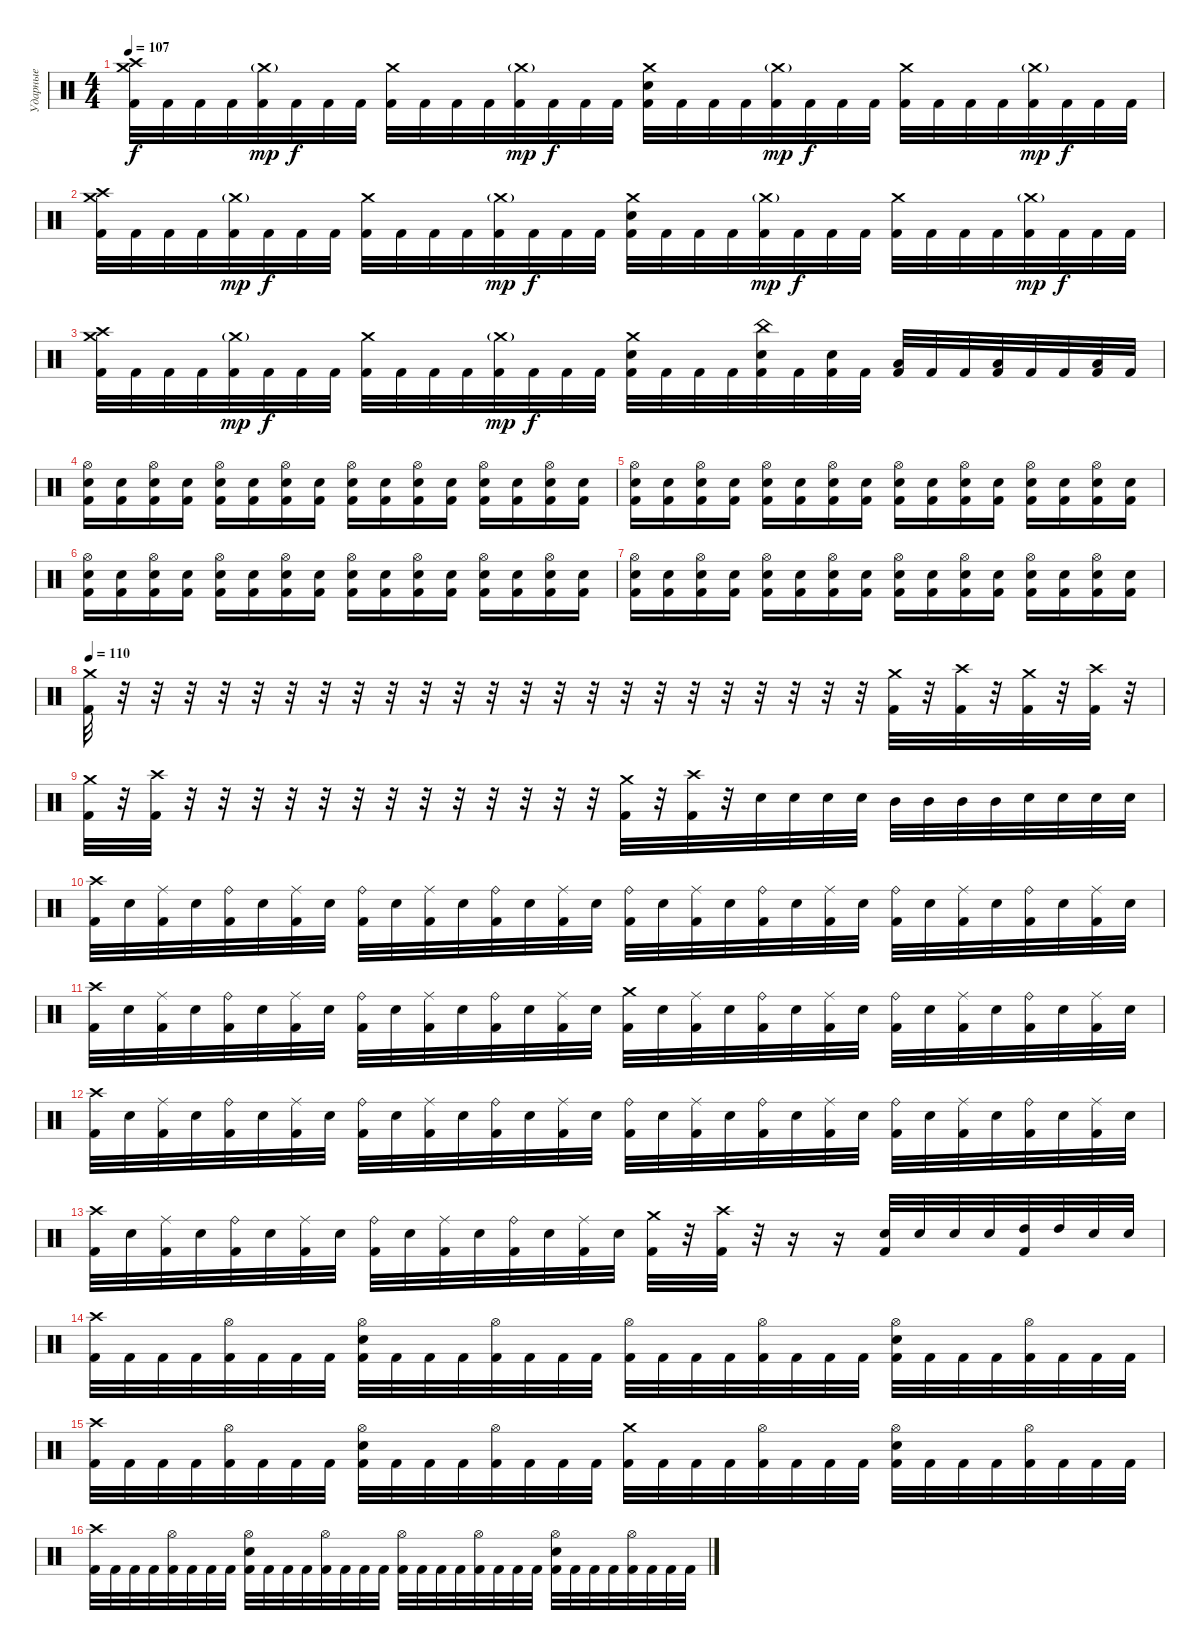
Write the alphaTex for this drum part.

\track ("Ударные" "Ударные") {instrument percussion}
\staff {score}
\articulation defaults
\ts (4 4)
\tempo 107
\clef neutral
\ks c
("Crash medium (hit)" "Crash high (hit)" "Kick (hit) 2").32{dy f} "Kick (hit) 2".32 "Kick (hit) 2".32 "Kick (hit) 2".32 ("Crash medium (hit)"{g} "Kick (hit) 2").32{dy mp} "Kick (hit) 2".32{dy f} "Kick (hit) 2".32 "Kick (hit) 2".32 ("Crash medium (hit)" "Kick (hit) 2").32 "Kick (hit) 2".32 "Kick (hit) 2".32 "Kick (hit) 2".32 ("Crash medium (hit)"{g} "Kick (hit) 2").32{dy mp} "Kick (hit) 2".32{dy f} "Kick (hit) 2".32 "Kick (hit) 2".32 ("Crash medium (hit)" "Electric Snare (hit)" "Kick (hit) 2").32 "Kick (hit) 2".32 "Kick (hit) 2".32 "Kick (hit) 2".32 ("Crash medium (hit)"{g} "Kick (hit) 2").32{dy mp} "Kick (hit) 2".32{dy f} "Kick (hit) 2".32 "Kick (hit) 2".32 ("Crash medium (hit)" "Kick (hit) 2").32 "Kick (hit) 2".32 "Kick (hit) 2".32 "Kick (hit) 2".32 ("Crash medium (hit)"{g} "Kick (hit) 2").32{dy mp} "Kick (hit) 2".32{dy f} "Kick (hit) 2".32 "Kick (hit) 2".32 |
("Crash medium (hit)" "Crash high (hit)" "Kick (hit) 2").32 "Kick (hit) 2".32 "Kick (hit) 2".32 "Kick (hit) 2".32 ("Crash medium (hit)"{g} "Kick (hit) 2").32{dy mp} "Kick (hit) 2".32{dy f} "Kick (hit) 2".32 "Kick (hit) 2".32 ("Crash medium (hit)" "Kick (hit) 2").32 "Kick (hit) 2".32 "Kick (hit) 2".32 "Kick (hit) 2".32 ("Crash medium (hit)"{g} "Kick (hit) 2").32{dy mp} "Kick (hit) 2".32{dy f} "Kick (hit) 2".32 "Kick (hit) 2".32 ("Crash medium (hit)" "Electric Snare (hit)" "Kick (hit) 2").32 "Kick (hit) 2".32 "Kick (hit) 2".32 "Kick (hit) 2".32 ("Crash medium (hit)"{g} "Kick (hit) 2").32{dy mp} "Kick (hit) 2".32{dy f} "Kick (hit) 2".32 "Kick (hit) 2".32 ("Crash medium (hit)" "Kick (hit) 2").32 "Kick (hit) 2".32 "Kick (hit) 2".32 "Kick (hit) 2".32 ("Crash medium (hit)"{g} "Kick (hit) 2").32{dy mp} "Kick (hit) 2".32{dy f} "Kick (hit) 2".32 "Kick (hit) 2".32 |
("Crash medium (hit)" "Crash high (hit)" "Kick (hit) 2").32 "Kick (hit) 2".32 "Kick (hit) 2".32 "Kick (hit) 2".32 ("Crash medium (hit)"{g} "Kick (hit) 2").32{dy mp} "Kick (hit) 2".32{dy f} "Kick (hit) 2".32 "Kick (hit) 2".32 ("Crash medium (hit)" "Kick (hit) 2").32 "Kick (hit) 2".32 "Kick (hit) 2".32 "Kick (hit) 2".32 ("Crash medium (hit)"{g} "Kick (hit) 2").32{dy mp} "Kick (hit) 2".32{dy f} "Kick (hit) 2".32 "Kick (hit) 2".32 ("Crash medium (hit)" "Electric Snare (hit)" "Kick (hit) 2").32 "Kick (hit) 2".32 "Kick (hit) 2".32 "Kick (hit) 2".32 ("China (hit)" "Electric Snare (hit)" "Kick (hit) 2").32 "Kick (hit) 2".32 ("Electric Snare (hit)" "Kick (hit) 2").32 "Kick (hit) 2".32 ("Low Tom (hit)" "Kick (hit) 2").32 "Kick (hit) 2".32 "Kick (hit) 2".32 ("Low Tom (hit)" "Kick (hit) 2").32 "Kick (hit) 2".32 "Kick (hit) 2".32 ("Low Tom (hit)" "Kick (hit) 2").32 "Kick (hit) 2".32 |
("Hi-Hat (open)" "Electric Snare (hit)" "Kick (hit) 2").16 ("Electric Snare (hit)" "Kick (hit) 2").16 ("Hi-Hat (open)" "Electric Snare (hit)" "Kick (hit) 2").16 ("Electric Snare (hit)" "Kick (hit) 2").16 ("Hi-Hat (open)" "Electric Snare (hit)" "Kick (hit) 2").16 ("Electric Snare (hit)" "Kick (hit) 2").16 ("Hi-Hat (open)" "Electric Snare (hit)" "Kick (hit) 2").16 ("Electric Snare (hit)" "Kick (hit) 2").16 ("Hi-Hat (open)" "Electric Snare (hit)" "Kick (hit) 2").16 ("Electric Snare (hit)" "Kick (hit) 2").16 ("Hi-Hat (open)" "Electric Snare (hit)" "Kick (hit) 2").16 ("Electric Snare (hit)" "Kick (hit) 2").16 ("Hi-Hat (open)" "Electric Snare (hit)" "Kick (hit) 2").16 ("Electric Snare (hit)" "Kick (hit) 2").16 ("Hi-Hat (open)" "Electric Snare (hit)" "Kick (hit) 2").16 ("Electric Snare (hit)" "Kick (hit) 2").16 |
("Hi-Hat (open)" "Electric Snare (hit)" "Kick (hit) 2").16 ("Electric Snare (hit)" "Kick (hit) 2").16 ("Hi-Hat (open)" "Electric Snare (hit)" "Kick (hit) 2").16 ("Electric Snare (hit)" "Kick (hit) 2").16 ("Hi-Hat (open)" "Electric Snare (hit)" "Kick (hit) 2").16 ("Electric Snare (hit)" "Kick (hit) 2").16 ("Hi-Hat (open)" "Electric Snare (hit)" "Kick (hit) 2").16 ("Electric Snare (hit)" "Kick (hit) 2").16 ("Hi-Hat (open)" "Electric Snare (hit)" "Kick (hit) 2").16 ("Electric Snare (hit)" "Kick (hit) 2").16 ("Hi-Hat (open)" "Electric Snare (hit)" "Kick (hit) 2").16 ("Electric Snare (hit)" "Kick (hit) 2").16 ("Hi-Hat (open)" "Electric Snare (hit)" "Kick (hit) 2").16 ("Electric Snare (hit)" "Kick (hit) 2").16 ("Hi-Hat (open)" "Electric Snare (hit)" "Kick (hit) 2").16 ("Electric Snare (hit)" "Kick (hit) 2").16 |
("Hi-Hat (open)" "Electric Snare (hit)" "Kick (hit) 2").16 ("Electric Snare (hit)" "Kick (hit) 2").16 ("Hi-Hat (open)" "Electric Snare (hit)" "Kick (hit) 2").16 ("Electric Snare (hit)" "Kick (hit) 2").16 ("Hi-Hat (open)" "Electric Snare (hit)" "Kick (hit) 2").16 ("Electric Snare (hit)" "Kick (hit) 2").16 ("Hi-Hat (open)" "Electric Snare (hit)" "Kick (hit) 2").16 ("Electric Snare (hit)" "Kick (hit) 2").16 ("Hi-Hat (open)" "Electric Snare (hit)" "Kick (hit) 2").16 ("Electric Snare (hit)" "Kick (hit) 2").16 ("Hi-Hat (open)" "Electric Snare (hit)" "Kick (hit) 2").16 ("Electric Snare (hit)" "Kick (hit) 2").16 ("Hi-Hat (open)" "Electric Snare (hit)" "Kick (hit) 2").16 ("Electric Snare (hit)" "Kick (hit) 2").16 ("Hi-Hat (open)" "Electric Snare (hit)" "Kick (hit) 2").16 ("Electric Snare (hit)" "Kick (hit) 2").16 |
("Hi-Hat (open)" "Electric Snare (hit)" "Kick (hit) 2").16 ("Electric Snare (hit)" "Kick (hit) 2").16 ("Hi-Hat (open)" "Electric Snare (hit)" "Kick (hit) 2").16 ("Electric Snare (hit)" "Kick (hit) 2").16 ("Hi-Hat (open)" "Electric Snare (hit)" "Kick (hit) 2").16 ("Electric Snare (hit)" "Kick (hit) 2").16 ("Hi-Hat (open)" "Electric Snare (hit)" "Kick (hit) 2").16 ("Electric Snare (hit)" "Kick (hit) 2").16 ("Hi-Hat (open)" "Electric Snare (hit)" "Kick (hit) 2").16 ("Electric Snare (hit)" "Kick (hit) 2").16 ("Hi-Hat (open)" "Electric Snare (hit)" "Kick (hit) 2").16 ("Electric Snare (hit)" "Kick (hit) 2").16 ("Hi-Hat (open)" "Electric Snare (hit)" "Kick (hit) 2").16 ("Electric Snare (hit)" "Kick (hit) 2").16 ("Hi-Hat (open)" "Electric Snare (hit)" "Kick (hit) 2").16 ("Electric Snare (hit)" "Kick (hit) 2").16 |
\tempo 110
("Crash medium (hit)" "Kick (hit) 2").32 r.32 r.32 r.32 r.32 r.32 r.32 r.32 r.32 r.32 r.32 r.32 r.32 r.32 r.32 r.32 r.32 r.32 r.32 r.32 r.32 r.32 r.32 r.32 ("Crash medium (hit)" "Kick (hit) 2").32 r.32 ("Crash high (hit)" "Kick (hit) 2").32 r.32 ("Crash medium (hit)" "Kick (hit) 2").32 r.32 ("Crash high (hit)" "Kick (hit) 2").32 r.32 |
("Crash medium (hit)" "Kick (hit) 2").32 r.32 ("Crash high (hit)" "Kick (hit) 2").32 r.32 r.32 r.32 r.32 r.32 r.32 r.32 r.32 r.32 r.32 r.32 r.32 r.32 ("Crash medium (hit)" "Kick (hit) 2").32 r.32 ("Crash high (hit)" "Kick (hit) 2").32 r.32 "Electric Snare (hit)".32 "Electric Snare (hit)".32 "Electric Snare (hit)".32 "Electric Snare (hit)".32 "Mid Tom (hit)".32 "Mid Tom (hit)".32 "Mid Tom (hit)".32 "Mid Tom (hit)".32 "Electric Snare (hit)".32 "Electric Snare (hit)".32 "Electric Snare (hit)".32 "Electric Snare (hit)".32 |
("Crash high (hit)" "Kick (hit) 2").32 "Electric Snare (hit)".32 ("Ride (middle)" "Kick (hit) 2").32 "Electric Snare (hit)".32 ("Ride (bell)" "Kick (hit) 2").32 "Electric Snare (hit)".32 ("Ride (middle)" "Kick (hit) 2").32 "Electric Snare (hit)".32 ("Ride (bell)" "Kick (hit) 2").32 "Electric Snare (hit)".32 ("Ride (middle)" "Kick (hit) 2").32 "Electric Snare (hit)".32 ("Ride (bell)" "Kick (hit) 2").32 "Electric Snare (hit)".32 ("Ride (middle)" "Kick (hit) 2").32 "Electric Snare (hit)".32 ("Ride (bell)" "Kick (hit) 2").32 "Electric Snare (hit)".32 ("Ride (middle)" "Kick (hit) 2").32 "Electric Snare (hit)".32 ("Ride (bell)" "Kick (hit) 2").32 "Electric Snare (hit)".32 ("Ride (middle)" "Kick (hit) 2").32 "Electric Snare (hit)".32 ("Ride (bell)" "Kick (hit) 2").32 "Electric Snare (hit)".32 ("Ride (middle)" "Kick (hit) 2").32 "Electric Snare (hit)".32 ("Ride (bell)" "Kick (hit) 2").32 "Electric Snare (hit)".32 ("Ride (middle)" "Kick (hit) 2").32 "Electric Snare (hit)".32 |
("Crash high (hit)" "Kick (hit) 2").32 "Electric Snare (hit)".32 ("Ride (middle)" "Kick (hit) 2").32 "Electric Snare (hit)".32 ("Ride (bell)" "Kick (hit) 2").32 "Electric Snare (hit)".32 ("Ride (middle)" "Kick (hit) 2").32 "Electric Snare (hit)".32 ("Ride (bell)" "Kick (hit) 2").32 "Electric Snare (hit)".32 ("Ride (middle)" "Kick (hit) 2").32 "Electric Snare (hit)".32 ("Ride (bell)" "Kick (hit) 2").32 "Electric Snare (hit)".32 ("Ride (middle)" "Kick (hit) 2").32 "Electric Snare (hit)".32 ("Crash medium (hit)" "Kick (hit) 2").32 "Electric Snare (hit)".32 ("Ride (middle)" "Kick (hit) 2").32 "Electric Snare (hit)".32 ("Ride (bell)" "Kick (hit) 2").32 "Electric Snare (hit)".32 ("Ride (middle)" "Kick (hit) 2").32 "Electric Snare (hit)".32 ("Ride (bell)" "Kick (hit) 2").32 "Electric Snare (hit)".32 ("Ride (middle)" "Kick (hit) 2").32 "Electric Snare (hit)".32 ("Ride (bell)" "Kick (hit) 2").32 "Electric Snare (hit)".32 ("Ride (middle)" "Kick (hit) 2").32 "Electric Snare (hit)".32 |
("Crash high (hit)" "Kick (hit) 2").32 "Electric Snare (hit)".32 ("Ride (middle)" "Kick (hit) 2").32 "Electric Snare (hit)".32 ("Ride (bell)" "Kick (hit) 2").32 "Electric Snare (hit)".32 ("Ride (middle)" "Kick (hit) 2").32 "Electric Snare (hit)".32 ("Ride (bell)" "Kick (hit) 2").32 "Electric Snare (hit)".32 ("Ride (middle)" "Kick (hit) 2").32 "Electric Snare (hit)".32 ("Ride (bell)" "Kick (hit) 2").32 "Electric Snare (hit)".32 ("Ride (middle)" "Kick (hit) 2").32 "Electric Snare (hit)".32 ("Ride (bell)" "Kick (hit) 2").32 "Electric Snare (hit)".32 ("Ride (middle)" "Kick (hit) 2").32 "Electric Snare (hit)".32 ("Ride (bell)" "Kick (hit) 2").32 "Electric Snare (hit)".32 ("Ride (middle)" "Kick (hit) 2").32 "Electric Snare (hit)".32 ("Ride (bell)" "Kick (hit) 2").32 "Electric Snare (hit)".32 ("Ride (middle)" "Kick (hit) 2").32 "Electric Snare (hit)".32 ("Ride (bell)" "Kick (hit) 2").32 "Electric Snare (hit)".32 ("Ride (middle)" "Kick (hit) 2").32 "Electric Snare (hit)".32 |
("Crash high (hit)" "Kick (hit) 2").32 "Electric Snare (hit)".32 ("Ride (middle)" "Kick (hit) 2").32 "Electric Snare (hit)".32 ("Ride (bell)" "Kick (hit) 2").32 "Electric Snare (hit)".32 ("Ride (middle)" "Kick (hit) 2").32 "Electric Snare (hit)".32 ("Ride (bell)" "Kick (hit) 2").32 "Electric Snare (hit)".32 ("Ride (middle)" "Kick (hit) 2").32 "Electric Snare (hit)".32 ("Ride (bell)" "Kick (hit) 2").32 "Electric Snare (hit)".32 ("Ride (middle)" "Kick (hit) 2").32 "Electric Snare (hit)".32 ("Crash medium (hit)" "Kick (hit) 2").32 r.32 ("Crash high (hit)" "Kick (hit) 2").32 r.32 r.16 r.16 ("Electric Snare (hit)" "Kick (hit) 2").32 "Electric Snare (hit)".32 "Electric Snare (hit)".32 "Electric Snare (hit)".32 ("High Tom (hit)" "Kick (hit) 2").32 "High Tom (hit)".32 "Electric Snare (hit)".32 "Electric Snare (hit)".32 |
("Crash high (hit)" "Kick (hit) 2").32 "Kick (hit) 2".32 "Kick (hit) 2".32 "Kick (hit) 2".32 ("Hi-Hat (open)" "Kick (hit) 2").32 "Kick (hit) 2".32 "Kick (hit) 2".32 "Kick (hit) 2".32 ("Hi-Hat (open)" "Electric Snare (hit)" "Kick (hit) 2").32 "Kick (hit) 2".32 "Kick (hit) 2".32 "Kick (hit) 2".32 ("Hi-Hat (open)" "Kick (hit) 2").32 "Kick (hit) 2".32 "Kick (hit) 2".32 "Kick (hit) 2".32 ("Hi-Hat (open)" "Kick (hit) 2").32 "Kick (hit) 2".32 "Kick (hit) 2".32 "Kick (hit) 2".32 ("Hi-Hat (open)" "Kick (hit) 2").32 "Kick (hit) 2".32 "Kick (hit) 2".32 "Kick (hit) 2".32 ("Hi-Hat (open)" "Electric Snare (hit)" "Kick (hit) 2").32 "Kick (hit) 2".32 "Kick (hit) 2".32 "Kick (hit) 2".32 ("Hi-Hat (open)" "Kick (hit) 2").32 "Kick (hit) 2".32 "Kick (hit) 2".32 "Kick (hit) 2".32 |
("Crash high (hit)" "Kick (hit) 2").32 "Kick (hit) 2".32 "Kick (hit) 2".32 "Kick (hit) 2".32 ("Hi-Hat (open)" "Kick (hit) 2").32 "Kick (hit) 2".32 "Kick (hit) 2".32 "Kick (hit) 2".32 ("Hi-Hat (open)" "Electric Snare (hit)" "Kick (hit) 2").32 "Kick (hit) 2".32 "Kick (hit) 2".32 "Kick (hit) 2".32 ("Hi-Hat (open)" "Kick (hit) 2").32 "Kick (hit) 2".32 "Kick (hit) 2".32 "Kick (hit) 2".32 ("Crash medium (hit)" "Kick (hit) 2").32 "Kick (hit) 2".32 "Kick (hit) 2".32 "Kick (hit) 2".32 ("Hi-Hat (open)" "Kick (hit) 2").32 "Kick (hit) 2".32 "Kick (hit) 2".32 "Kick (hit) 2".32 ("Hi-Hat (open)" "Electric Snare (hit)" "Kick (hit) 2").32 "Kick (hit) 2".32 "Kick (hit) 2".32 "Kick (hit) 2".32 ("Hi-Hat (open)" "Kick (hit) 2").32 "Kick (hit) 2".32 "Kick (hit) 2".32 "Kick (hit) 2".32 |
("Crash high (hit)" "Kick (hit) 2").32 "Kick (hit) 2".32 "Kick (hit) 2".32 "Kick (hit) 2".32 ("Hi-Hat (open)" "Kick (hit) 2").32 "Kick (hit) 2".32 "Kick (hit) 2".32 "Kick (hit) 2".32 ("Hi-Hat (open)" "Electric Snare (hit)" "Kick (hit) 2").32 "Kick (hit) 2".32 "Kick (hit) 2".32 "Kick (hit) 2".32 ("Hi-Hat (open)" "Kick (hit) 2").32 "Kick (hit) 2".32 "Kick (hit) 2".32 "Kick (hit) 2".32 ("Hi-Hat (open)" "Kick (hit) 2").32 "Kick (hit) 2".32 "Kick (hit) 2".32 "Kick (hit) 2".32 ("Hi-Hat (open)" "Kick (hit) 2").32 "Kick (hit) 2".32 "Kick (hit) 2".32 "Kick (hit) 2".32 ("Hi-Hat (open)" "Electric Snare (hit)" "Kick (hit) 2").32 "Kick (hit) 2".32 "Kick (hit) 2".32 "Kick (hit) 2".32 ("Hi-Hat (open)" "Kick (hit) 2").32 "Kick (hit) 2".32 "Kick (hit) 2".32 "Kick (hit) 2".32
